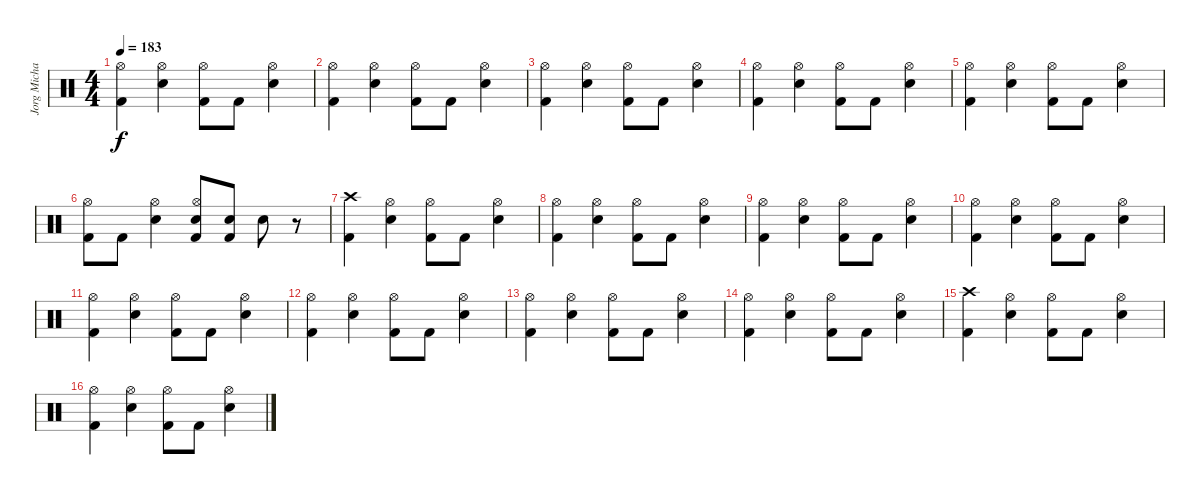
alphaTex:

\track ("Jorg Michael" "Jorg Micha") {instrument percussion}
\staff {score}
\articulation defaults
\ts (4 4)
\tempo 183
\clef neutral
\ks c
("Kick (hit) 2" "Hi-Hat (open)").4{dy f} ("Snare (hit) 2" "Hi-Hat (open)").4 ("Kick (hit) 2" "Hi-Hat (open)").8 "Kick (hit) 2".8 ("Snare (hit) 2" "Hi-Hat (open)").4 |
("Kick (hit) 2" "Hi-Hat (open)").4 ("Snare (hit) 2" "Hi-Hat (open)").4 ("Kick (hit) 2" "Hi-Hat (open)").8 "Kick (hit) 2".8 ("Snare (hit) 2" "Hi-Hat (open)").4 |
("Kick (hit) 2" "Hi-Hat (open)").4 ("Snare (hit) 2" "Hi-Hat (open)").4 ("Kick (hit) 2" "Hi-Hat (open)").8 "Kick (hit) 2".8 ("Snare (hit) 2" "Hi-Hat (open)").4 |
("Kick (hit) 2" "Hi-Hat (open)").4 ("Snare (hit) 2" "Hi-Hat (open)").4 ("Kick (hit) 2" "Hi-Hat (open)").8 "Kick (hit) 2".8 ("Snare (hit) 2" "Hi-Hat (open)").4 |
("Kick (hit) 2" "Hi-Hat (open)").4 ("Snare (hit) 2" "Hi-Hat (open)").4 ("Kick (hit) 2" "Hi-Hat (open)").8 "Kick (hit) 2".8 ("Snare (hit) 2" "Hi-Hat (open)").4 |
("Kick (hit) 2" "Hi-Hat (open)").8 "Kick (hit) 2".8 ("Snare (hit) 2" "Hi-Hat (open)").4 ("Snare (hit) 2" "Kick (hit) 2" "Hi-Hat (open)").8 ("Snare (hit) 2" "Kick (hit) 2").8 "Snare (hit) 2".8 r.8 |
("Kick (hit) 2" "Crash high (hit)").4 ("Snare (hit) 2" "Hi-Hat (open)").4 ("Kick (hit) 2" "Hi-Hat (open)").8 "Kick (hit) 2".8 ("Snare (hit) 2" "Hi-Hat (open)").4 |
("Kick (hit) 2" "Hi-Hat (open)").4 ("Snare (hit) 2" "Hi-Hat (open)").4 ("Kick (hit) 2" "Hi-Hat (open)").8 "Kick (hit) 2".8 ("Snare (hit) 2" "Hi-Hat (open)").4 |
("Kick (hit) 2" "Hi-Hat (open)").4 ("Snare (hit) 2" "Hi-Hat (open)").4 ("Kick (hit) 2" "Hi-Hat (open)").8 "Kick (hit) 2".8 ("Snare (hit) 2" "Hi-Hat (open)").4 |
("Kick (hit) 2" "Hi-Hat (open)").4 ("Snare (hit) 2" "Hi-Hat (open)").4 ("Kick (hit) 2" "Hi-Hat (open)").8 "Kick (hit) 2".8 ("Snare (hit) 2" "Hi-Hat (open)").4 |
("Kick (hit) 2" "Hi-Hat (open)").4 ("Snare (hit) 2" "Hi-Hat (open)").4 ("Kick (hit) 2" "Hi-Hat (open)").8 "Kick (hit) 2".8 ("Snare (hit) 2" "Hi-Hat (open)").4 |
("Kick (hit) 2" "Hi-Hat (open)").4 ("Snare (hit) 2" "Hi-Hat (open)").4 ("Kick (hit) 2" "Hi-Hat (open)").8 "Kick (hit) 2".8 ("Snare (hit) 2" "Hi-Hat (open)").4 |
("Kick (hit) 2" "Hi-Hat (open)").4 ("Snare (hit) 2" "Hi-Hat (open)").4 ("Kick (hit) 2" "Hi-Hat (open)").8 "Kick (hit) 2".8 ("Snare (hit) 2" "Hi-Hat (open)").4 |
("Kick (hit) 2" "Hi-Hat (open)").4 ("Snare (hit) 2" "Hi-Hat (open)").4 ("Kick (hit) 2" "Hi-Hat (open)").8 "Kick (hit) 2".8 ("Snare (hit) 2" "Hi-Hat (open)").4 |
("Kick (hit) 2" "Crash high (hit)").4 ("Snare (hit) 2" "Hi-Hat (open)").4 ("Kick (hit) 2" "Hi-Hat (open)").8 "Kick (hit) 2".8 ("Snare (hit) 2" "Hi-Hat (open)").4 |
("Kick (hit) 2" "Hi-Hat (open)").4 ("Snare (hit) 2" "Hi-Hat (open)").4 ("Kick (hit) 2" "Hi-Hat (open)").8 "Kick (hit) 2".8 ("Snare (hit) 2" "Hi-Hat (open)").4
